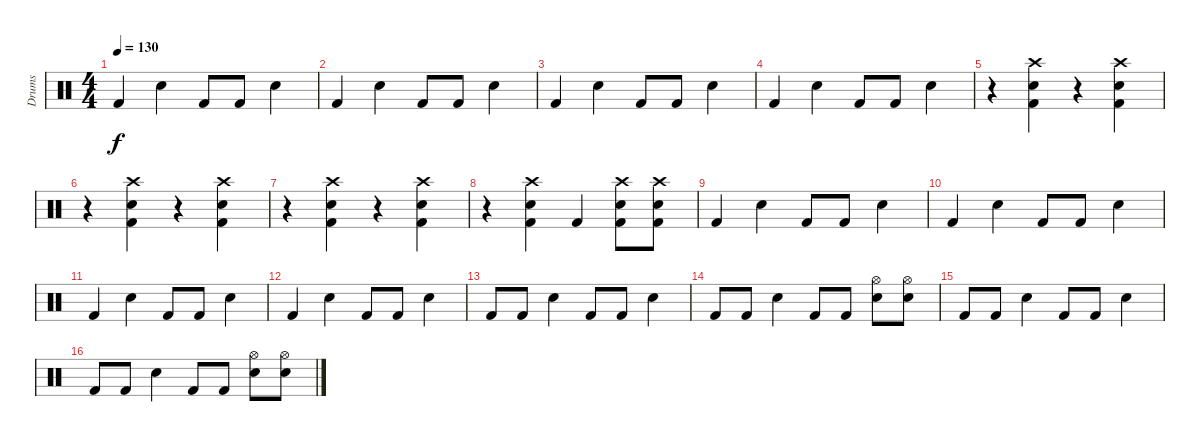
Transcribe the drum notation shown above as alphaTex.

\track ("Drums" "Drums") {instrument percussion}
\staff {score}
\articulation defaults
\ts (4 4)
\tempo 130
\clef neutral
\ks c "Kick (hit) 2".4{dy f} "Snare (hit) 2".4 "Kick (hit) 2".8 "Kick (hit) 2".8 "Snare (hit) 2".4
|
"Kick (hit) 2".4 "Snare (hit) 2".4 "Kick (hit) 2".8 "Kick (hit) 2".8 "Snare (hit) 2".4 |
"Kick (hit) 2".4 "Snare (hit) 2".4 "Kick (hit) 2".8 "Kick (hit) 2".8 "Snare (hit) 2".4 |
"Kick (hit) 2".4 "Snare (hit) 2".4 "Kick (hit) 2".8 "Kick (hit) 2".8 "Snare (hit) 2".4 |
r.4 ("Kick (hit) 2" "Snare (hit) 2" "Crash high (hit)").4 r.4 ("Kick (hit) 2" "Snare (hit) 2" "Crash high (hit)").4 |
r.4 ("Kick (hit) 2" "Snare (hit) 2" "Crash high (hit)").4 r.4 ("Kick (hit) 2" "Snare (hit) 2" "Crash high (hit)").4 |
r.4 ("Kick (hit) 2" "Snare (hit) 2" "Crash high (hit)").4 r.4 ("Kick (hit) 2" "Snare (hit) 2" "Crash high (hit)").4 |
r.4 ("Kick (hit) 2" "Snare (hit) 2" "Crash high (hit)").4 "Kick (hit) 2".4 ("Kick (hit) 2" "Snare (hit) 2" "Crash high (hit)").8 ("Kick (hit) 2" "Snare (hit) 2" "Crash high (hit)").8 |
"Kick (hit) 2".4 "Snare (hit) 2".4 "Kick (hit) 2".8 "Kick (hit) 2".8 "Snare (hit) 2".4 |
"Kick (hit) 2".4 "Snare (hit) 2".4 "Kick (hit) 2".8 "Kick (hit) 2".8 "Snare (hit) 2".4 |
"Kick (hit) 2".4 "Snare (hit) 2".4 "Kick (hit) 2".8 "Kick (hit) 2".8 "Snare (hit) 2".4 |
"Kick (hit) 2".4 "Snare (hit) 2".4 "Kick (hit) 2".8 "Kick (hit) 2".8 "Snare (hit) 2".4 |
"Kick (hit) 2".8 "Kick (hit) 2".8 "Snare (hit) 2".4 "Kick (hit) 2".8 "Kick (hit) 2".8 "Snare (hit) 2".4 |
"Kick (hit) 2".8 "Kick (hit) 2".8 "Snare (hit) 2".4 "Kick (hit) 2".8 "Kick (hit) 2".8 ("Snare (hit) 2" "Hi-Hat (open)").8 ("Snare (hit) 2" "Hi-Hat (open)").8 |
"Kick (hit) 2".8 "Kick (hit) 2".8 "Snare (hit) 2".4 "Kick (hit) 2".8 "Kick (hit) 2".8 "Snare (hit) 2".4 |
"Kick (hit) 2".8 "Kick (hit) 2".8 "Snare (hit) 2".4 "Kick (hit) 2".8 "Kick (hit) 2".8 ("Snare (hit) 2" "Hi-Hat (open)").8 ("Snare (hit) 2" "Hi-Hat (open)").8
